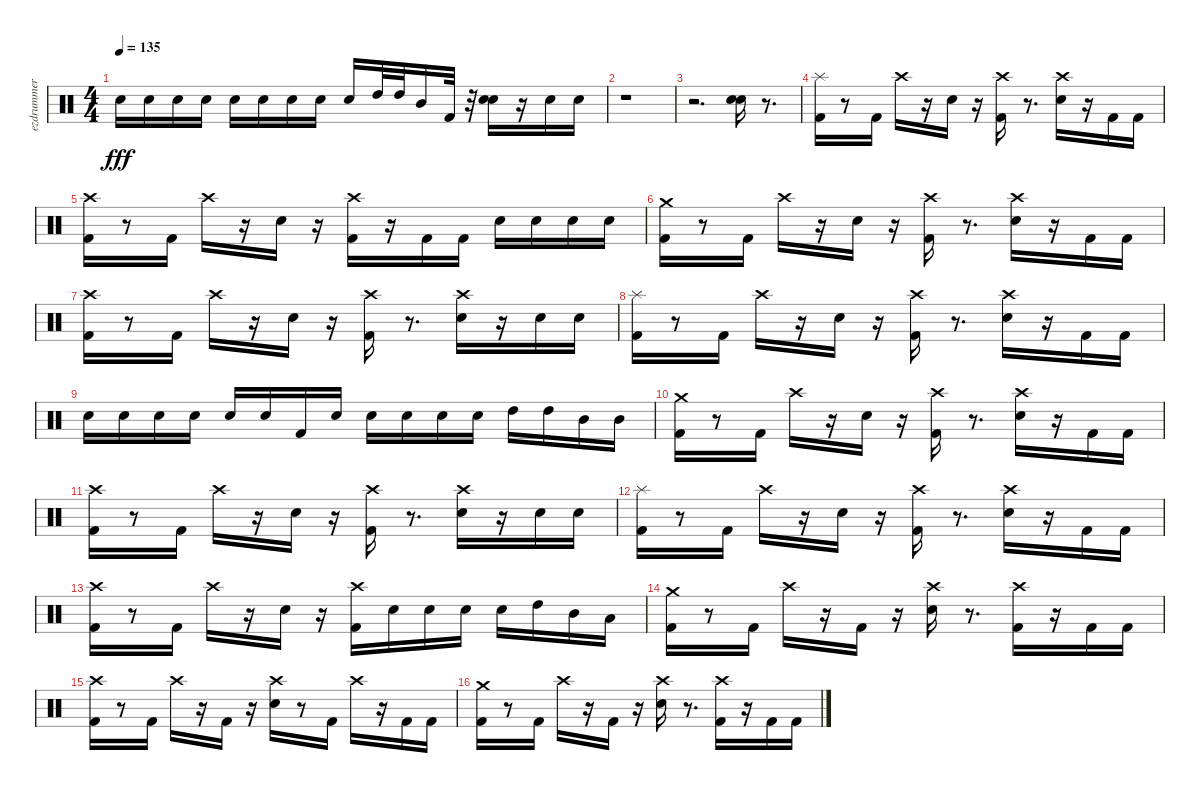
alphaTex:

\track ("ezdrummer" "ezdrummer") {instrument percussion}
\staff {score}
\articulation defaults
\ts (4 4)
\tempo 135
\clef neutral
\ks c "Snare (hit) 2".16{dy fff} "Snare (hit) 2".16 "Snare (hit) 2".16 "Snare (hit) 2".16 "Snare (hit) 2".16 "Snare (hit) 2".16 "Snare (hit) 2".16 "Snare (hit) 2".16 "Snare (hit) 2".16 "High Tom (hit)".32 "High Tom (hit)".32 "Mid Tom (hit)".16 "Kick (hit) 2".32
r.32 ("Snare (hit) 2" "Snare (hit) 2").16 r.16 "Snare (hit) 2".16 "Snare (hit) 2".16 |
r.1 |
r.2{d} ("Snare (hit) 2" "Snare (hit) 2").16 r.8{d} |
("Kick (hit) 2" "Splash (hit)").16 r.8 "Kick (hit) 2".16 "Crash high (hit)".16 r.16 "Snare (hit) 2".16 r.16 ("Kick (hit) 2" "Crash high (hit)").16 r.8{d} ("Snare (hit) 2" "Crash high (hit)").16 r.16 "Kick (hit) 2".16 "Kick (hit) 2".16 |
("Kick (hit) 2" "Crash high (hit)").16 r.8 "Kick (hit) 2".16 "Crash high (hit)".16 r.16 "Snare (hit) 2".16 r.16 ("Kick (hit) 2" "Crash high (hit)").16 r.16 "Kick (hit) 2".16 "Kick (hit) 2".16 "Snare (hit) 2".16 "Snare (hit) 2".16 "Snare (hit) 2".16 "Snare (hit) 2".16 |
("Kick (hit) 2" "Crash medium (hit)").16 r.8 "Kick (hit) 2".16 "Crash high (hit)".16 r.16 "Snare (hit) 2".16 r.16 ("Kick (hit) 2" "Crash high (hit)").16 r.8{d} ("Snare (hit) 2" "Crash high (hit)").16 r.16 "Kick (hit) 2".16 "Kick (hit) 2".16 |
("Kick (hit) 2" "Crash high (hit)").16 r.8 "Kick (hit) 2".16 "Crash high (hit)".16 r.16 "Snare (hit) 2".16 r.16 ("Kick (hit) 2" "Crash high (hit)").16 r.8{d} ("Snare (hit) 2" "Crash high (hit)").16 r.16 "Snare (hit) 2".16 "Snare (hit) 2".16 |
("Kick (hit) 2" "Splash (hit)").16 r.8 "Kick (hit) 2".16 "Crash high (hit)".16 r.16 "Snare (hit) 2".16 r.16 ("Kick (hit) 2" "Crash high (hit)").16 r.8{d} ("Snare (hit) 2" "Crash high (hit)").16 r.16 "Kick (hit) 2".16 "Kick (hit) 2".16 |
"Snare (hit) 2".16 "Snare (hit) 2".16 "Snare (hit) 2".16 "Snare (hit) 2".16 "Snare (hit) 2".16 "Snare (hit) 2".16 "Kick (hit) 2".16 "Snare (hit) 2".16 "Snare (hit) 2".16 "Snare (hit) 2".16 "Snare (hit) 2".16 "Snare (hit) 2".16 "High Tom (hit)".16 "High Tom (hit)".16 "Mid Tom (hit)".16 "Mid Tom (hit)".16 |
("Kick (hit) 2" "Crash medium (hit)").16 r.8 "Kick (hit) 2".16 "Crash high (hit)".16 r.16 "Snare (hit) 2".16 r.16 ("Kick (hit) 2" "Crash high (hit)").16 r.8{d} ("Snare (hit) 2" "Crash high (hit)").16 r.16 "Kick (hit) 2".16 "Kick (hit) 2".16 |
("Kick (hit) 2" "Crash high (hit)").16 r.8 "Kick (hit) 2".16 "Crash high (hit)".16 r.16 "Snare (hit) 2".16 r.16 ("Kick (hit) 2" "Crash high (hit)").16 r.8{d} ("Snare (hit) 2" "Crash high (hit)").16 r.16 "Snare (hit) 2".16 "Snare (hit) 2".16 |
("Kick (hit) 2" "Splash (hit)").16 r.8 "Kick (hit) 2".16 "Crash high (hit)".16 r.16 "Snare (hit) 2".16 r.16 ("Kick (hit) 2" "Crash high (hit)").16 r.8{d} ("Snare (hit) 2" "Crash high (hit)").16 r.16 "Kick (hit) 2".16 "Kick (hit) 2".16 |
("Kick (hit) 2" "Crash high (hit)").16 r.8 "Kick (hit) 2".16 "Crash high (hit)".16 r.16 "Snare (hit) 2".16 r.16 ("Kick (hit) 2" "Crash high (hit)").16 "Snare (hit) 2".16 "Snare (hit) 2".16 "Snare (hit) 2".16 "Snare (hit) 2".16 "High Tom (hit)".16 "Mid Tom (hit)".16 "Low Tom (hit)".16 |
("Kick (hit) 2" "Crash medium (hit)").16 r.8 "Kick (hit) 2".16 "Crash high (hit)".16 r.16 "Kick (hit) 2".16 r.16 ("Snare (hit) 2" "Crash high (hit)").16 r.8{d} ("Kick (hit) 2" "Crash high (hit)").16 r.16 "Kick (hit) 2".16 "Kick (hit) 2".16 |
("Kick (hit) 2" "Crash high (hit)").16 r.8 "Kick (hit) 2".16 "Crash high (hit)".16 r.16 "Kick (hit) 2".16 r.16 ("Snare (hit) 2" "Crash high (hit)").16 r.8 "Kick (hit) 2".16 "Crash high (hit)".16 r.16 "Kick (hit) 2".16 "Kick (hit) 2".16 |
("Kick (hit) 2" "Crash medium (hit)").16 r.8 "Kick (hit) 2".16 "Crash high (hit)".16 r.16 "Kick (hit) 2".16 r.16 ("Snare (hit) 2" "Crash high (hit)").16 r.8{d} ("Kick (hit) 2" "Crash high (hit)").16 r.16 "Kick (hit) 2".16 "Kick (hit) 2".16
